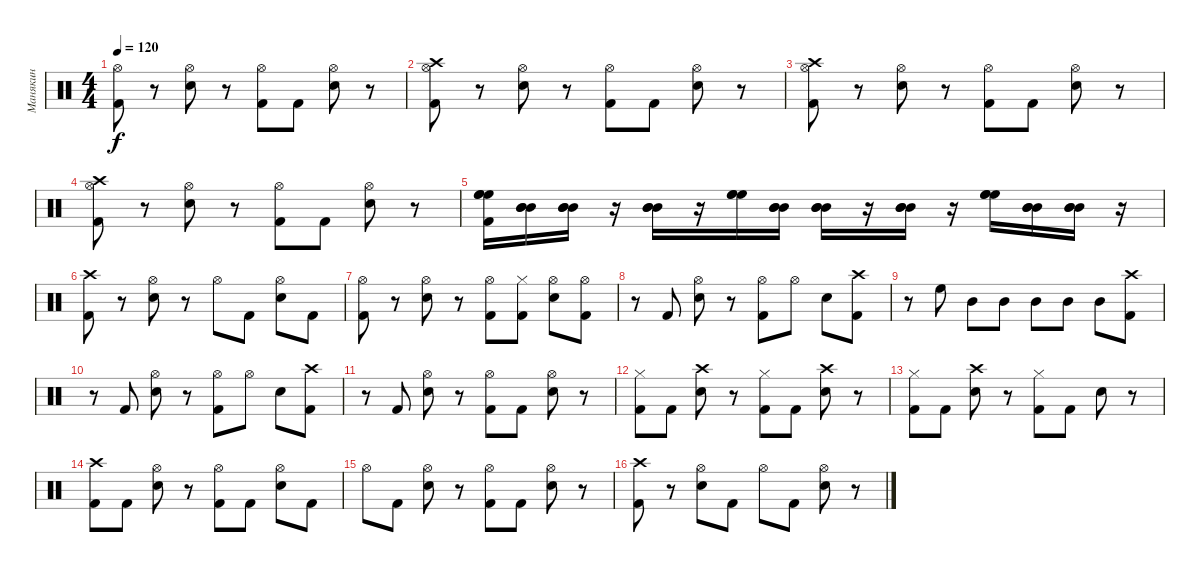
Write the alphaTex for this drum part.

\track ("Манякин" "Манякин") {instrument percussion}
\staff {score}
\articulation defaults
\ts (4 4)
\tempo 120
\clef neutral
\ks c
("Hi-Hat (open)" "Kick (hit) 2").8{dy f} r.8 ("Hi-Hat (open)" "Electric Snare (hit)").8 r.8 ("Hi-Hat (open)" "Kick (hit) 2").8 "Kick (hit) 2".8 ("Hi-Hat (open)" "Electric Snare (hit)").8 r.8 |
("Crash high (hit)" "Hi-Hat (open)" "Kick (hit) 2").8 r.8 ("Hi-Hat (open)" "Electric Snare (hit)").8 r.8 ("Hi-Hat (open)" "Kick (hit) 2").8 "Kick (hit) 2".8 ("Hi-Hat (open)" "Electric Snare (hit)").8 r.8 |
("Crash high (hit)" "Hi-Hat (open)" "Kick (hit) 2").8 r.8 ("Hi-Hat (open)" "Electric Snare (hit)").8 r.8 ("Hi-Hat (open)" "Kick (hit) 2").8 "Kick (hit) 2".8 ("Hi-Hat (open)" "Electric Snare (hit)").8 r.8 |
("Crash high (hit)" "Hi-Hat (open)" "Kick (hit) 2").8 r.8 ("Hi-Hat (open)" "Electric Snare (hit)").8 r.8 ("Hi-Hat (open)" "Kick (hit) 2").8 "Kick (hit) 2".8 ("Hi-Hat (open)" "Electric Snare (hit)").8 r.8 |
("High Floor Tom (hit)" "High Floor Tom (hit)" "High Floor Tom (hit)" "Kick (hit) 2").16 ("Mid Tom (hit)" "Mid Tom (hit)" "Mid Tom (hit)").16 ("Mid Tom (hit)" "Mid Tom (hit)" "Mid Tom (hit)").16 r.16 ("Mid Tom (hit)" "Mid Tom (hit)" "Mid Tom (hit)").16 r.16 ("High Floor Tom (hit)" "High Floor Tom (hit)" "High Floor Tom (hit)").16 ("Mid Tom (hit)" "Mid Tom (hit)" "Mid Tom (hit)").16 ("Mid Tom (hit)" "Mid Tom (hit)" "Mid Tom (hit)").16 r.16 ("Mid Tom (hit)" "Mid Tom (hit)" "Mid Tom (hit)").16 r.16 ("High Floor Tom (hit)" "High Floor Tom (hit)" "High Floor Tom (hit)").16 ("Mid Tom (hit)" "Mid Tom (hit)" "Mid Tom (hit)").16 ("Mid Tom (hit)" "Mid Tom (hit)" "Mid Tom (hit)").16 r.16 |
("Crash high (hit)" "Kick (hit) 2").8 r.8 ("Hi-Hat (open)" "Electric Snare (hit)").8 r.8 "Hi-Hat (open)".8 "Kick (hit) 2".8 ("Hi-Hat (open)" "Electric Snare (hit)").8 "Kick (hit) 2".8 |
("Hi-Hat (open)" "Kick (hit) 2").8 r.8 ("Hi-Hat (open)" "Electric Snare (hit)").8 r.8 ("Hi-Hat (open)" "Kick (hit) 2").8 ("Hi-Hat (closed)" "Kick (hit) 2").8 ("Hi-Hat (open)" "Electric Snare (hit)").8 ("Hi-Hat (open)" "Kick (hit) 2").8 |
r.8 "Kick (hit) 2".8 ("Hi-Hat (open)" "Electric Snare (hit)").8 r.8 ("Hi-Hat (open)" "Kick (hit) 2").8 "Hi-Hat (open)".8 "Electric Snare (hit)".8 ("Crash high (hit)" "Kick (hit) 2").8 |
r.8 "High Floor Tom (hit)".8 "Mid Tom (hit)".8 "Mid Tom (hit)".8 "Mid Tom (hit)".8 "Mid Tom (hit)".8 "Mid Tom (hit)".8 ("Crash high (hit)" "Kick (hit) 2").8 |
r.8 "Kick (hit) 2".8 ("Hi-Hat (open)" "Electric Snare (hit)").8 r.8 ("Hi-Hat (open)" "Kick (hit) 2").8 "Hi-Hat (open)".8 "Electric Snare (hit)".8 ("Crash high (hit)" "Kick (hit) 2").8 |
r.8 "Kick (hit) 2".8 ("Hi-Hat (open)" "Electric Snare (hit)").8 r.8 ("Hi-Hat (open)" "Kick (hit) 2").8 "Kick (hit) 2".8 ("Hi-Hat (open)" "Electric Snare (hit)").8 r.8 |
("Hi-Hat (closed)" "Kick (hit) 2").8 "Kick (hit) 2".8 ("Crash high (hit)" "Electric Snare (hit)").8 r.8 ("Hi-Hat (closed)" "Kick (hit) 2").8 "Kick (hit) 2".8 ("Crash high (hit)" "Electric Snare (hit)").8 r.8 |
("Hi-Hat (closed)" "Kick (hit) 2").8 "Kick (hit) 2".8 ("Crash high (hit)" "Electric Snare (hit)").8 r.8 ("Hi-Hat (closed)" "Kick (hit) 2").8 "Kick (hit) 2".8 "Electric Snare (hit)".8 r.8 |
("Crash high (hit)" "Kick (hit) 2").8 "Kick (hit) 2".8 ("Hi-Hat (open)" "Electric Snare (hit)").8 r.8 ("Hi-Hat (open)" "Kick (hit) 2").8 "Kick (hit) 2".8 ("Hi-Hat (open)" "Electric Snare (hit)").8 "Kick (hit) 2".8 |
"Hi-Hat (open)".8 "Kick (hit) 2".8 ("Hi-Hat (open)" "Electric Snare (hit)").8 r.8 ("Hi-Hat (open)" "Kick (hit) 2").8 "Kick (hit) 2".8 ("Hi-Hat (open)" "Electric Snare (hit)").8 r.8 |
("Crash high (hit)" "Kick (hit) 2").8 r.8 ("Hi-Hat (open)" "Electric Snare (hit)").8 "Kick (hit) 2".8 "Hi-Hat (open)".8 "Kick (hit) 2".8 ("Hi-Hat (open)" "Electric Snare (hit)").8 r.8
